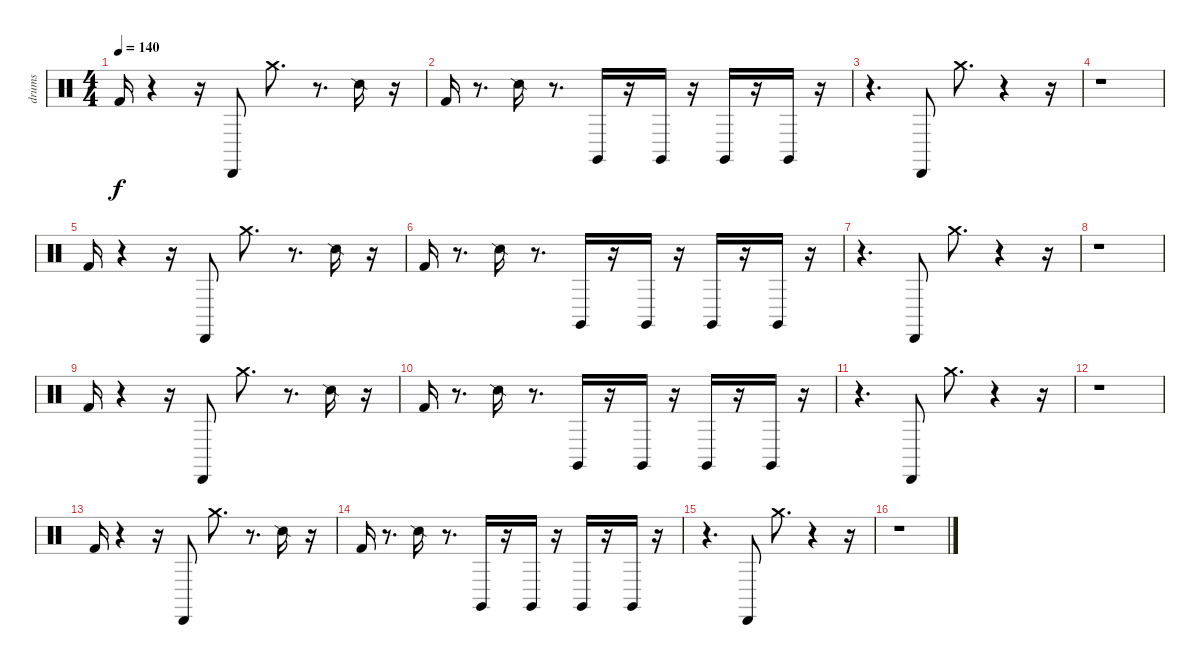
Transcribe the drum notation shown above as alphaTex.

\track ("drums" "drums") {instrument percussion}
\staff {score}
\articulation defaults
\ts (4 4)
\tempo 140
\clef neutral
\ks c "Kick (hit) 2".16{dy f}
r.4 r.16 "Cabasa (hit)".8 "Crash medium (hit)".8{d} r.8{d} "Snare (side stick) 2".16 r.16 |
"Kick (hit) 2".16 r.8{d} "Snare (side stick) 2".16 r.8{d} "Claves (hit)".16 r.16 "Claves (hit)".16 r.16 "Claves (hit)".16 r.16 "Claves (hit)".16 r.16 |
r.4{d} "Cabasa (hit)".8 "Crash medium (hit)".8{d} r.4 r.16 |
r.1 |
"Kick (hit) 2".16 r.4 r.16 "Cabasa (hit)".8 "Crash medium (hit)".8{d} r.8{d} "Snare (side stick) 2".16 r.16 |
"Kick (hit) 2".16 r.8{d} "Snare (side stick) 2".16 r.8{d} "Claves (hit)".16 r.16 "Claves (hit)".16 r.16 "Claves (hit)".16 r.16 "Claves (hit)".16 r.16 |
r.4{d} "Cabasa (hit)".8 "Crash medium (hit)".8{d} r.4 r.16 |
r.1 |
"Kick (hit) 2".16 r.4 r.16 "Cabasa (hit)".8 "Crash medium (hit)".8{d} r.8{d} "Snare (side stick) 2".16 r.16 |
"Kick (hit) 2".16 r.8{d} "Snare (side stick) 2".16 r.8{d} "Claves (hit)".16 r.16 "Claves (hit)".16 r.16 "Claves (hit)".16 r.16 "Claves (hit)".16 r.16 |
r.4{d} "Cabasa (hit)".8 "Crash medium (hit)".8{d} r.4 r.16 |
r.1 |
"Kick (hit) 2".16 r.4 r.16 "Cabasa (hit)".8 "Crash medium (hit)".8{d} r.8{d} "Snare (side stick) 2".16 r.16 |
"Kick (hit) 2".16 r.8{d} "Snare (side stick) 2".16 r.8{d} "Claves (hit)".16 r.16 "Claves (hit)".16 r.16 "Claves (hit)".16 r.16 "Claves (hit)".16 r.16 |
r.4{d} "Cabasa (hit)".8 "Crash medium (hit)".8{d} r.4 r.16 |
r.1
